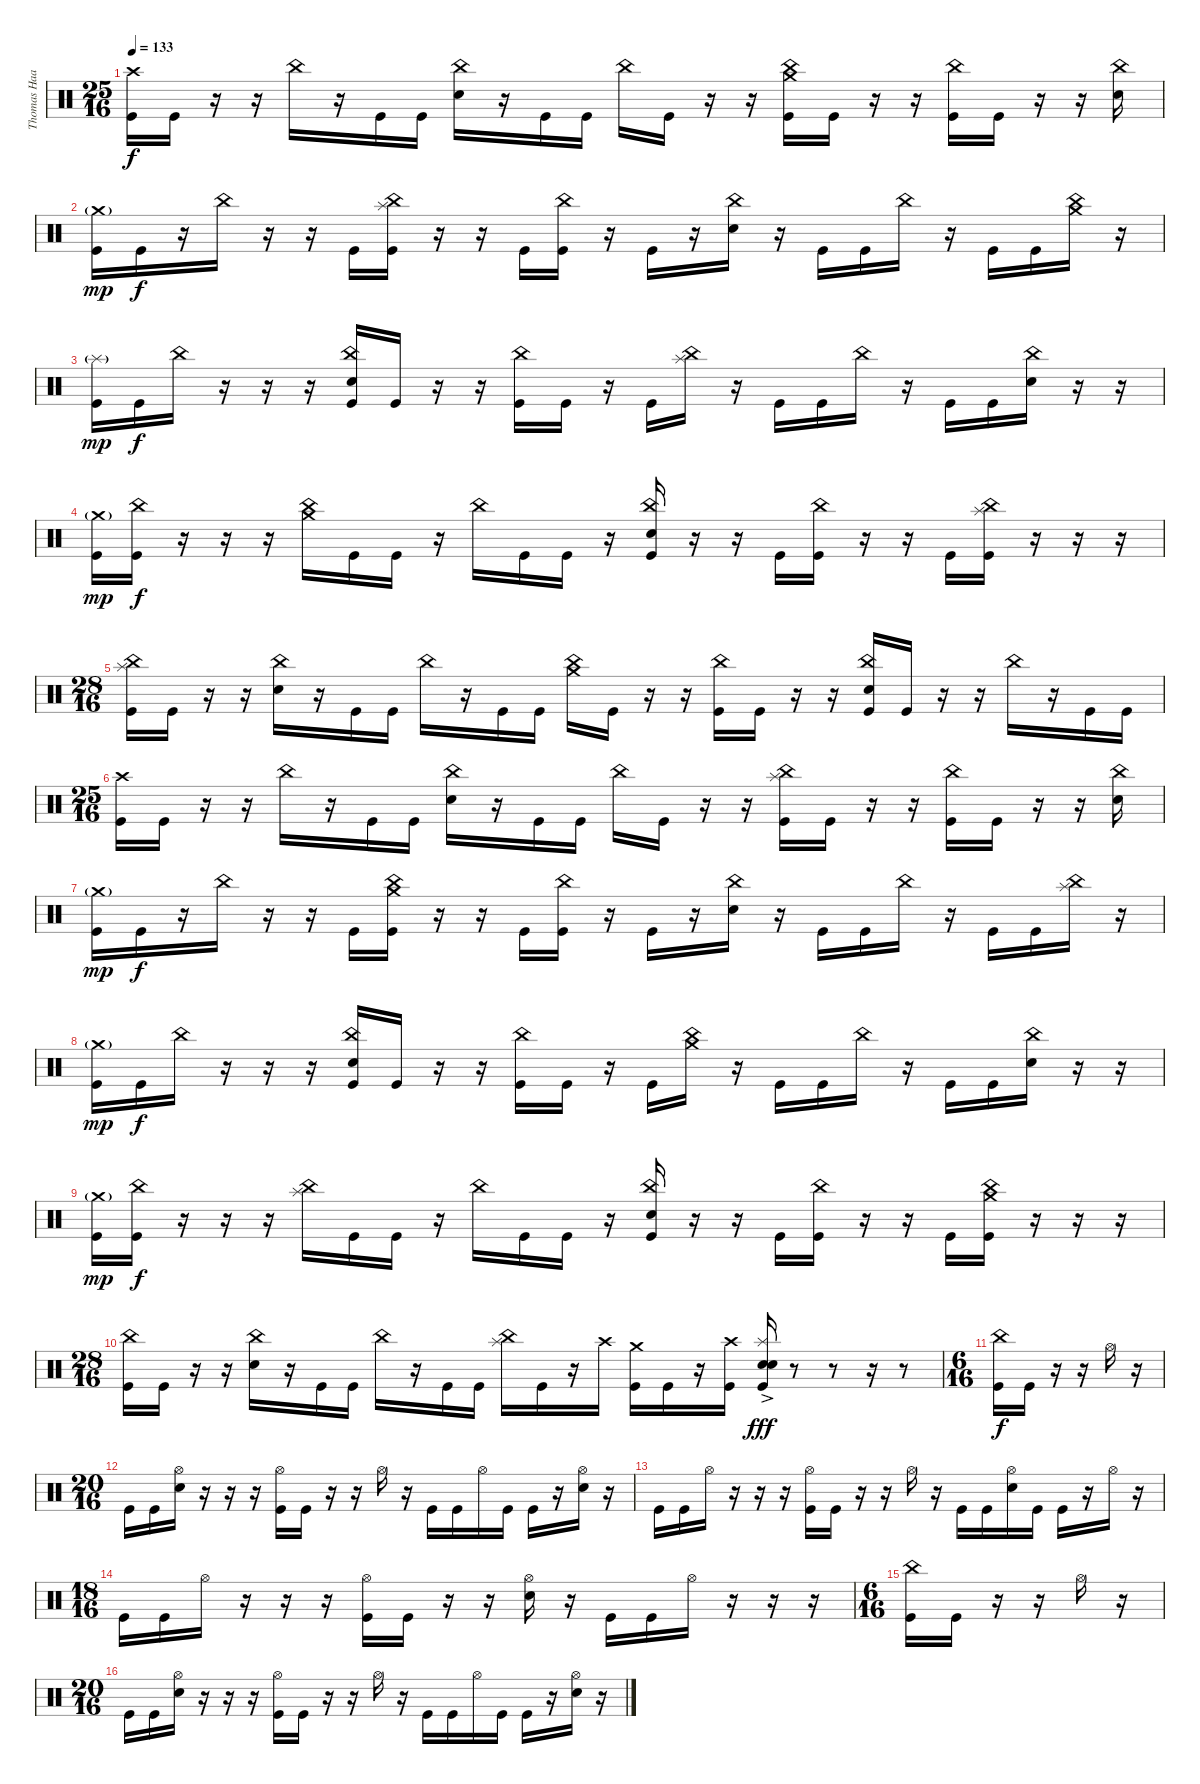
\track ("Thomas Haake" "Thomas Haa") {instrument percussion}
\staff {score}
\articulation defaults
\ts (25 16)
\tempo 133
\clef neutral
\ks c
("Crash high (hit)" "Kick (hit)").16{dy f} "Kick (hit)".16 r.16 r.16 "China (hit)".16 r.16 "Kick (hit)".16 "Kick (hit)".16 ("China (hit)" "Snare (hit) 2").16 r.16 "Kick (hit)".16 "Kick (hit)".16 "China (hit)".16 "Kick (hit)".16 r.16 r.16 ("Crash medium (hit)" "China (hit)" "Kick (hit)").16 "Kick (hit)".16 r.16 r.16 ("China (hit)" "Kick (hit)").16 "Kick (hit)".16 r.16 r.16 ("China (hit)" "Snare (hit) 2").16 |
("Crash medium (hit)"{g} "Kick (hit)").16{dy mp} "Kick (hit)".16{dy f} r.16 "China (hit)".16 r.16 r.16 "Kick (hit)".16 ("Splash (hit)" "China (hit)" "Kick (hit)").16 r.16 r.16 "Kick (hit)".16 ("China (hit)" "Kick (hit)").16 r.16 "Kick (hit)".16 r.16 ("China (hit)" "Snare (hit) 2").16 r.16 "Kick (hit)".16 "Kick (hit)".16 "China (hit)".16 r.16 "Kick (hit)".16 "Kick (hit)".16 ("Crash medium (hit)" "China (hit)").16 r.16 |
("Splash (hit)"{g} "Kick (hit)").16{dy mp} "Kick (hit)".16{dy f} "China (hit)".16 r.16 r.16 r.16 ("China (hit)" "Snare (hit) 2" "Kick (hit)").16 "Kick (hit)".16 r.16 r.16 ("China (hit)" "Kick (hit)").16 "Kick (hit)".16 r.16 "Kick (hit)".16 ("Splash (hit)" "China (hit)").16 r.16 "Kick (hit)".16 "Kick (hit)".16 "China (hit)".16 r.16 "Kick (hit)".16 "Kick (hit)".16 ("China (hit)" "Snare (hit) 2").16 r.16 r.16 |
("Crash medium (hit)"{g} "Kick (hit)").16{dy mp} ("China (hit)" "Kick (hit)").16{dy f} r.16 r.16 r.16 ("Crash medium (hit)" "China (hit)").16 "Kick (hit)".16 "Kick (hit)".16 r.16 "China (hit)".16 "Kick (hit)".16 "Kick (hit)".16 r.16 ("China (hit)" "Snare (hit) 2" "Kick (hit)").16 r.16 r.16 "Kick (hit)".16 ("China (hit)" "Kick (hit)").16 r.16 r.16 "Kick (hit)".16 ("Splash (hit)" "China (hit)" "Kick (hit)").16 r.16 r.16 r.16 |
\ts (28 16)
("China (hit)" "Splash (hit)" "Kick (hit)").16 "Kick (hit)".16 r.16 r.16 ("China (hit)" "Snare (hit) 2").16 r.16 "Kick (hit)".16 "Kick (hit)".16 "China (hit)".16 r.16 "Kick (hit)".16 "Kick (hit)".16 ("Crash medium (hit)" "China (hit)").16 "Kick (hit)".16 r.16 r.16 ("China (hit)" "Kick (hit)").16 "Kick (hit)".16 r.16 r.16 ("China (hit)" "Snare (hit) 2" "Kick (hit)").16 "Kick (hit)".16 r.16 r.16 "China (hit)".16 r.16 "Kick (hit)".16 "Kick (hit)".16 |
\ts (25 16)
("Crash high (hit)" "Kick (hit)").16 "Kick (hit)".16 r.16 r.16 "China (hit)".16 r.16 "Kick (hit)".16 "Kick (hit)".16 ("China (hit)" "Snare (hit) 2").16 r.16 "Kick (hit)".16 "Kick (hit)".16 "China (hit)".16 "Kick (hit)".16 r.16 r.16 ("Splash (hit)" "China (hit)" "Kick (hit)").16 "Kick (hit)".16 r.16 r.16 ("China (hit)" "Kick (hit)").16 "Kick (hit)".16 r.16 r.16 ("China (hit)" "Snare (hit) 2").16 |
("Crash medium (hit)"{g} "Kick (hit)").16{dy mp} "Kick (hit)".16{dy f} r.16 "China (hit)".16 r.16 r.16 "Kick (hit)".16 ("Crash medium (hit)" "China (hit)" "Kick (hit)").16 r.16 r.16 "Kick (hit)".16 ("China (hit)" "Kick (hit)").16 r.16 "Kick (hit)".16 r.16 ("China (hit)" "Snare (hit) 2").16 r.16 "Kick (hit)".16 "Kick (hit)".16 "China (hit)".16 r.16 "Kick (hit)".16 "Kick (hit)".16 ("Splash (hit)" "China (hit)").16 r.16 |
("Crash medium (hit)"{g} "Kick (hit)").16{dy mp} "Kick (hit)".16{dy f} "China (hit)".16 r.16 r.16 r.16 ("China (hit)" "Snare (hit) 2" "Kick (hit)").16 "Kick (hit)".16 r.16 r.16 ("China (hit)" "Kick (hit)").16 "Kick (hit)".16 r.16 "Kick (hit)".16 ("Crash medium (hit)" "China (hit)").16 r.16 "Kick (hit)".16 "Kick (hit)".16 "China (hit)".16 r.16 "Kick (hit)".16 "Kick (hit)".16 ("China (hit)" "Snare (hit) 2").16 r.16 r.16 |
("Crash medium (hit)"{g} "Kick (hit)").16{dy mp} ("China (hit)" "Kick (hit)").16{dy f} r.16 r.16 r.16 ("Splash (hit)" "China (hit)").16 "Kick (hit)".16 "Kick (hit)".16 r.16 "China (hit)".16 "Kick (hit)".16 "Kick (hit)".16 r.16 ("China (hit)" "Snare (hit) 2" "Kick (hit)").16 r.16 r.16 "Kick (hit)".16 ("China (hit)" "Kick (hit)").16 r.16 r.16 "Kick (hit)".16 ("Crash medium (hit)" "China (hit)" "Kick (hit)").16 r.16 r.16 r.16 |
\ts (28 16)
("China (hit)" "Kick (hit)").16 "Kick (hit)".16 r.16 r.16 ("China (hit)" "Snare (hit) 2").16 r.16 "Kick (hit)".16 "Kick (hit)".16 "China (hit)".16 r.16 "Kick (hit)".16 "Kick (hit)".16 ("Splash (hit)" "China (hit)").16 "Kick (hit)".16 r.16 "Crash high (hit)".16 ("Crash medium (hit)" "Kick (hit)").16 "Kick (hit)".16 r.16 ("Crash high (hit)" "Kick (hit)").16 ("Splash (hit)" "Electric Snare (hit)"{ac} "Snare (hit) 2"{ac} "Kick (hit)").16{dy fff} r.8 r.8 r.16 r.8 |
\ts (6 16)
("China (hit)" "Kick (hit)").16{dy f} "Kick (hit)".16 r.16 r.16 "Hi-Hat (open)".16 r.16 |
\ts (20 16)
"Kick (hit)".16 "Kick (hit)".16 ("Hi-Hat (open)" "Snare (hit) 2").16 r.16 r.16 r.16 ("Hi-Hat (open)" "Kick (hit)").16 "Kick (hit)".16 r.16 r.16 "Hi-Hat (open)".16 r.16 "Kick (hit)".16 "Kick (hit)".16 "Hi-Hat (open)".16 "Kick (hit)".16 "Kick (hit)".16 r.16 ("Hi-Hat (open)" "Snare (hit) 2").16 r.16 |
"Kick (hit)".16 "Kick (hit)".16 "Hi-Hat (open)".16 r.16 r.16 r.16 ("Hi-Hat (open)" "Kick (hit)").16 "Kick (hit)".16 r.16 r.16 "Hi-Hat (open)".16 r.16 "Kick (hit)".16 "Kick (hit)".16 ("Hi-Hat (open)" "Snare (hit) 2").16 "Kick (hit)".16 "Kick (hit)".16 r.16 "Hi-Hat (open)".16 r.16 |
\ts (18 16)
"Kick (hit)".16 "Kick (hit)".16 "Hi-Hat (open)".16 r.16 r.16 r.16 ("Hi-Hat (open)" "Kick (hit)").16 "Kick (hit)".16 r.16 r.16 ("Hi-Hat (open)" "Snare (hit) 2").16 r.16 "Kick (hit)".16 "Kick (hit)".16 "Hi-Hat (open)".16 r.16 r.16 r.16 |
\ts (6 16)
("China (hit)" "Kick (hit)").16 "Kick (hit)".16 r.16 r.16 "Hi-Hat (open)".16 r.16 |
\ts (20 16)
"Kick (hit)".16 "Kick (hit)".16 ("Hi-Hat (open)" "Snare (hit) 2").16 r.16 r.16 r.16 ("Hi-Hat (open)" "Kick (hit)").16 "Kick (hit)".16 r.16 r.16 "Hi-Hat (open)".16 r.16 "Kick (hit)".16 "Kick (hit)".16 "Hi-Hat (open)".16 "Kick (hit)".16 "Kick (hit)".16 r.16 ("Hi-Hat (open)" "Snare (hit) 2").16 r.16
